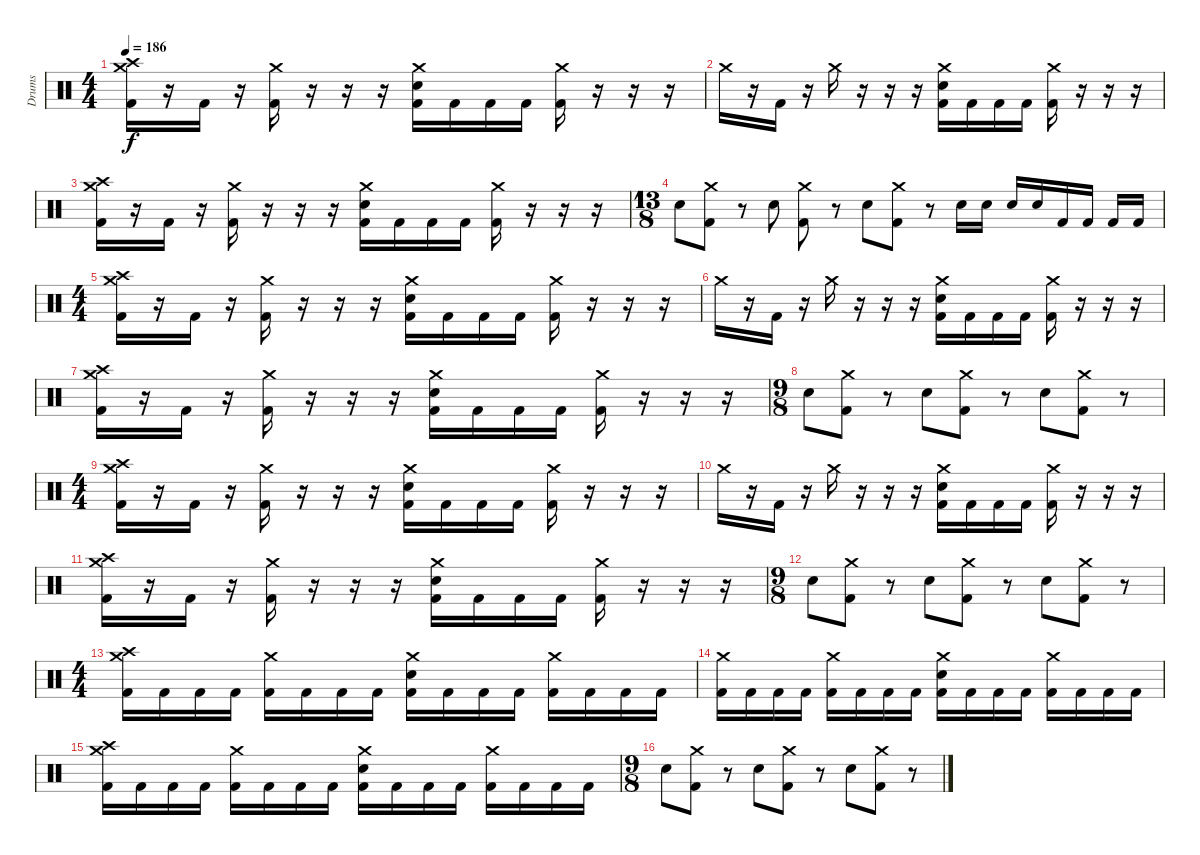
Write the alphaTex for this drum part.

\track ("Drums" "Drums") {instrument percussion}
\staff {score}
\articulation defaults
\ts (4 4)
\tempo 186
\clef neutral
\ks c
("Crash high (hit)" "Crash medium (hit)" "Kick (hit) 2").16{dy f} r.16 "Kick (hit) 2".16 r.16 ("Crash medium (hit)" "Kick (hit) 2").16 r.16 r.16 r.16 ("Crash medium (hit)" "Snare (hit) 2" "Kick (hit) 2").16 "Kick (hit) 2".16 "Kick (hit) 2".16 "Kick (hit) 2".16 ("Crash medium (hit)" "Kick (hit) 2").16 r.16 r.16 r.16 |
"Crash medium (hit)".16 r.16 "Kick (hit) 2".16 r.16 "Crash medium (hit)".16 r.16 r.16 r.16 ("Crash medium (hit)" "Snare (hit) 2" "Kick (hit) 2").16 "Kick (hit) 2".16 "Kick (hit) 2".16 "Kick (hit) 2".16 ("Crash medium (hit)" "Kick (hit) 2").16 r.16 r.16 r.16 |
("Crash high (hit)" "Crash medium (hit)" "Kick (hit) 2").16 r.16 "Kick (hit) 2".16 r.16 ("Crash medium (hit)" "Kick (hit) 2").16 r.16 r.16 r.16 ("Crash medium (hit)" "Snare (hit) 2" "Kick (hit) 2").16 "Kick (hit) 2".16 "Kick (hit) 2".16 "Kick (hit) 2".16 ("Crash medium (hit)" "Kick (hit) 2").16 r.16 r.16 r.16 |
\ts (13 8)
"Snare (hit) 2".8 ("Crash medium (hit)" "Kick (hit) 2").8 r.8 "Snare (hit) 2".8 ("Crash medium (hit)" "Kick (hit) 2").8 r.8 "Snare (hit) 2".8 ("Crash medium (hit)" "Kick (hit) 2").8 r.8 "Snare (hit) 2".16 "Snare (hit) 2".16 "Snare (hit) 2".16 "Snare (hit) 2".16 "Kick (hit) 2".16 "Kick (hit) 2".16 "Kick (hit) 2".16 "Kick (hit) 2".16 |
\ts (4 4)
("Crash high (hit)" "Crash medium (hit)" "Kick (hit) 2").16 r.16 "Kick (hit) 2".16 r.16 ("Crash medium (hit)" "Kick (hit) 2").16 r.16 r.16 r.16 ("Crash medium (hit)" "Snare (hit) 2" "Kick (hit) 2").16 "Kick (hit) 2".16 "Kick (hit) 2".16 "Kick (hit) 2".16 ("Crash medium (hit)" "Kick (hit) 2").16 r.16 r.16 r.16 |
"Crash medium (hit)".16 r.16 "Kick (hit) 2".16 r.16 "Crash medium (hit)".16 r.16 r.16 r.16 ("Crash medium (hit)" "Snare (hit) 2" "Kick (hit) 2").16 "Kick (hit) 2".16 "Kick (hit) 2".16 "Kick (hit) 2".16 ("Crash medium (hit)" "Kick (hit) 2").16 r.16 r.16 r.16 |
("Crash high (hit)" "Crash medium (hit)" "Kick (hit) 2").16 r.16 "Kick (hit) 2".16 r.16 ("Crash medium (hit)" "Kick (hit) 2").16 r.16 r.16 r.16 ("Crash medium (hit)" "Snare (hit) 2" "Kick (hit) 2").16 "Kick (hit) 2".16 "Kick (hit) 2".16 "Kick (hit) 2".16 ("Crash medium (hit)" "Kick (hit) 2").16 r.16 r.16 r.16 |
\ts (9 8)
"Snare (hit) 2".8 ("Crash medium (hit)" "Kick (hit) 2").8 r.8 "Snare (hit) 2".8 ("Crash medium (hit)" "Kick (hit) 2").8 r.8 "Snare (hit) 2".8 ("Crash medium (hit)" "Kick (hit) 2").8 r.8 |
\ts (4 4)
("Crash high (hit)" "Crash medium (hit)" "Kick (hit) 2").16 r.16 "Kick (hit) 2".16 r.16 ("Crash medium (hit)" "Kick (hit) 2").16 r.16 r.16 r.16 ("Crash medium (hit)" "Snare (hit) 2" "Kick (hit) 2").16 "Kick (hit) 2".16 "Kick (hit) 2".16 "Kick (hit) 2".16 ("Crash medium (hit)" "Kick (hit) 2").16 r.16 r.16 r.16 |
"Crash medium (hit)".16 r.16 "Kick (hit) 2".16 r.16 "Crash medium (hit)".16 r.16 r.16 r.16 ("Crash medium (hit)" "Snare (hit) 2" "Kick (hit) 2").16 "Kick (hit) 2".16 "Kick (hit) 2".16 "Kick (hit) 2".16 ("Crash medium (hit)" "Kick (hit) 2").16 r.16 r.16 r.16 |
("Crash high (hit)" "Crash medium (hit)" "Kick (hit) 2").16 r.16 "Kick (hit) 2".16 r.16 ("Crash medium (hit)" "Kick (hit) 2").16 r.16 r.16 r.16 ("Crash medium (hit)" "Snare (hit) 2" "Kick (hit) 2").16 "Kick (hit) 2".16 "Kick (hit) 2".16 "Kick (hit) 2".16 ("Crash medium (hit)" "Kick (hit) 2").16 r.16 r.16 r.16 |
\ts (9 8)
"Snare (hit) 2".8 ("Crash medium (hit)" "Kick (hit) 2").8 r.8 "Snare (hit) 2".8 ("Crash medium (hit)" "Kick (hit) 2").8 r.8 "Snare (hit) 2".8 ("Crash medium (hit)" "Kick (hit) 2").8 r.8 |
\ts (4 4)
("Crash high (hit)" "Crash medium (hit)" "Kick (hit) 2").16 "Kick (hit) 2".16 "Kick (hit) 2".16 "Kick (hit) 2".16 ("Crash medium (hit)" "Kick (hit) 2").16 "Kick (hit) 2".16 "Kick (hit) 2".16 "Kick (hit) 2".16 ("Crash medium (hit)" "Snare (hit) 2" "Kick (hit) 2").16 "Kick (hit) 2".16 "Kick (hit) 2".16 "Kick (hit) 2".16 ("Crash medium (hit)" "Kick (hit) 2").16 "Kick (hit) 2".16 "Kick (hit) 2".16 "Kick (hit) 2".16 |
("Crash medium (hit)" "Kick (hit) 2").16 "Kick (hit) 2".16 "Kick (hit) 2".16 "Kick (hit) 2".16 ("Crash medium (hit)" "Kick (hit) 2").16 "Kick (hit) 2".16 "Kick (hit) 2".16 "Kick (hit) 2".16 ("Crash medium (hit)" "Snare (hit) 2" "Kick (hit) 2").16 "Kick (hit) 2".16 "Kick (hit) 2".16 "Kick (hit) 2".16 ("Crash medium (hit)" "Kick (hit) 2").16 "Kick (hit) 2".16 "Kick (hit) 2".16 "Kick (hit) 2".16 |
("Crash high (hit)" "Crash medium (hit)" "Kick (hit) 2").16 "Kick (hit) 2".16 "Kick (hit) 2".16 "Kick (hit) 2".16 ("Crash medium (hit)" "Kick (hit) 2").16 "Kick (hit) 2".16 "Kick (hit) 2".16 "Kick (hit) 2".16 ("Crash medium (hit)" "Snare (hit) 2" "Kick (hit) 2").16 "Kick (hit) 2".16 "Kick (hit) 2".16 "Kick (hit) 2".16 ("Crash medium (hit)" "Kick (hit) 2").16 "Kick (hit) 2".16 "Kick (hit) 2".16 "Kick (hit) 2".16 |
\ts (9 8)
"Snare (hit) 2".8 ("Crash medium (hit)" "Kick (hit) 2").8 r.8 "Snare (hit) 2".8 ("Crash medium (hit)" "Kick (hit) 2").8 r.8 "Snare (hit) 2".8 ("Crash medium (hit)" "Kick (hit) 2").8 r.8
